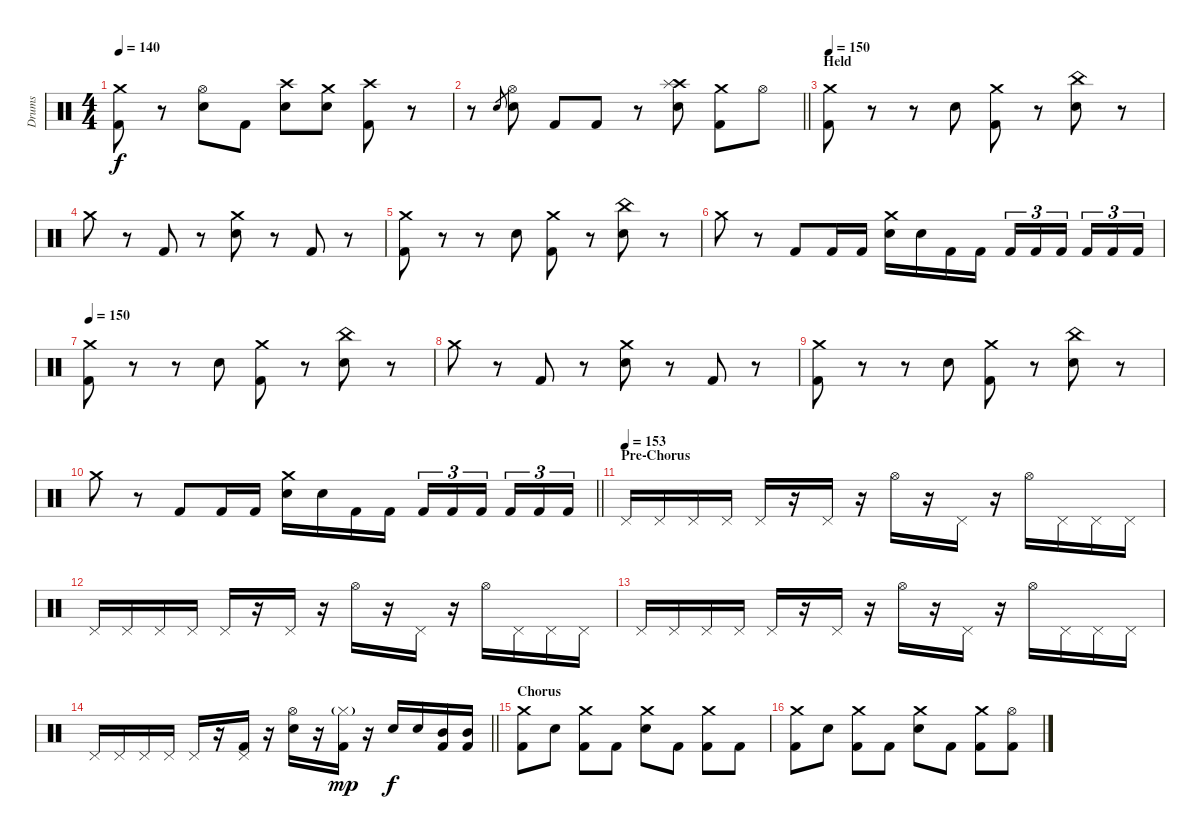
\track ("Drums" "Drums") {instrument percussion}
\staff {score}
\articulation defaults
\ts (4 4)
\tempo 140
\clef neutral
\ks c
("Crash medium (hit)" "Kick (hit) 2").8{dy f} r.8 ("Hi-Hat (open)" "Electric Snare (hit)").8 "Kick (hit) 2".8 ("Crash high (hit)" "Electric Snare (hit)").8 ("Crash medium (hit)" "Electric Snare (hit)").8 ("Crash high (hit)" "Kick (hit) 2").8 r.8 |
\barLineRight lightlight
r.8 "Electric Snare (hit)".8{gr} ("Hi-Hat (open)" "Electric Snare (hit)").8 "Kick (hit) 2".8 "Kick (hit) 2".8 r.8 ("Crash high (hit)" "Splash (hit)" "Electric Snare (hit)").8 ("Crash medium (hit)" "Kick (hit) 2").8 "Hi-Hat (open)".8 |
\section ("" "Held")
\tempo 150
("Crash medium (hit)" "Kick (hit) 2").8 r.8 r.8 "Electric Snare (hit)".8 ("Crash medium (hit)" "Kick (hit) 2").8 r.8 ("China (hit)" "Electric Snare (hit)").8 r.8 |
"Crash medium (hit)".8 r.8 "Kick (hit) 2".8 r.8 ("Crash medium (hit)" "Electric Snare (hit)").8 r.8 "Kick (hit) 2".8 r.8 |
("Crash medium (hit)" "Kick (hit) 2").8 r.8 r.8 "Electric Snare (hit)".8 ("Crash medium (hit)" "Kick (hit) 2").8 r.8 ("China (hit)" "Electric Snare (hit)").8 r.8 |
"Crash medium (hit)".8 r.8 "Kick (hit) 2".8 "Kick (hit) 2".16 "Kick (hit) 2".16 ("Crash medium (hit)" "Electric Snare (hit)").16 "Electric Snare (hit)".16 "Kick (hit) 2".16 "Kick (hit) 2".16 "Kick (hit) 2".16{tu (3 2)} "Kick (hit) 2".16{tu (3 2)} "Kick (hit) 2".16{tu (3 2) beam splitsecondary} "Kick (hit) 2".16{tu (3 2)} "Kick (hit) 2".16{tu (3 2)} "Kick (hit) 2".16{tu (3 2)} |
\tempo 150
("Crash medium (hit)" "Kick (hit) 2").8 r.8 r.8 "Electric Snare (hit)".8 ("Crash medium (hit)" "Kick (hit) 2").8 r.8 ("China (hit)" "Electric Snare (hit)").8 r.8 |
"Crash medium (hit)".8 r.8 "Kick (hit) 2".8 r.8 ("Crash medium (hit)" "Electric Snare (hit)").8 r.8 "Kick (hit) 2".8 r.8 |
("Crash medium (hit)" "Kick (hit) 2").8 r.8 r.8 "Electric Snare (hit)".8 ("Crash medium (hit)" "Kick (hit) 2").8 r.8 ("China (hit)" "Electric Snare (hit)").8 r.8 |
\barLineRight lightlight "Crash medium (hit)".8
r.8 "Kick (hit) 2".8 "Kick (hit) 2".16 "Kick (hit) 2".16 ("Crash medium (hit)" "Electric Snare (hit)").16 "Electric Snare (hit)".16 "Kick (hit) 2".16 "Kick (hit) 2".16 "Kick (hit) 2".16{tu (3 2)} "Kick (hit) 2".16{tu (3 2)} "Kick (hit) 2".16{tu (3 2) beam splitsecondary} "Kick (hit) 2".16{tu (3 2)} "Kick (hit) 2".16{tu (3 2)} "Kick (hit) 2".16{tu (3 2)} |
\section ("" "Pre-Chorus")
\tempo (153)
"Pedal Hi-Hat (hit)".16 "Pedal Hi-Hat (hit)".16 "Pedal Hi-Hat (hit)".16 "Pedal Hi-Hat (hit)".16 "Pedal Hi-Hat (hit)".16 r.16 "Pedal Hi-Hat (hit)".16 r.16 "Hi-Hat (open)".16 r.16 "Pedal Hi-Hat (hit)".16 r.16 "Hi-Hat (open)".16 "Pedal Hi-Hat (hit)".16 "Pedal Hi-Hat (hit)".16 "Pedal Hi-Hat (hit)".16 |
"Pedal Hi-Hat (hit)".16 "Pedal Hi-Hat (hit)".16 "Pedal Hi-Hat (hit)".16 "Pedal Hi-Hat (hit)".16 "Pedal Hi-Hat (hit)".16 r.16 "Pedal Hi-Hat (hit)".16 r.16 "Hi-Hat (open)".16 r.16 "Pedal Hi-Hat (hit)".16 r.16 "Hi-Hat (open)".16 "Pedal Hi-Hat (hit)".16 "Pedal Hi-Hat (hit)".16 "Pedal Hi-Hat (hit)".16 |
"Pedal Hi-Hat (hit)".16 "Pedal Hi-Hat (hit)".16 "Pedal Hi-Hat (hit)".16 "Pedal Hi-Hat (hit)".16 "Pedal Hi-Hat (hit)".16 r.16 "Pedal Hi-Hat (hit)".16 r.16 "Hi-Hat (open)".16 r.16 "Pedal Hi-Hat (hit)".16 r.16 "Hi-Hat (open)".16 "Pedal Hi-Hat (hit)".16 "Pedal Hi-Hat (hit)".16 "Pedal Hi-Hat (hit)".16 |
\barLineRight lightlight "Pedal Hi-Hat (hit)".16 "Pedal Hi-Hat (hit)".16 "Pedal Hi-Hat (hit)".16 "Pedal Hi-Hat (hit)".16 "Pedal Hi-Hat (hit)".16
r.16 ("Pedal Hi-Hat (hit)" "Kick (hit) 2").16 r.16 ("Hi-Hat (open)" "Electric Snare (hit)").16 r.16 ("Hi-Hat (closed)"{g} "Kick (hit) 2").16{dy mp} r.16 "Electric Snare (hit)".16{dy f} "Electric Snare (hit)".16 ("Mid Tom (hit)" "Kick (hit) 2").16 ("Mid Tom (hit)" "Kick (hit) 2").16 |
\section ("" "Chorus")
("Crash medium (hit)" "Kick (hit) 2").8 "Electric Snare (hit)".8 ("Crash medium (hit)" "Kick (hit) 2").8 "Kick (hit) 2".8 ("Crash medium (hit)" "Electric Snare (hit)").8 "Kick (hit) 2".8 ("Crash medium (hit)" "Kick (hit) 2").8 "Kick (hit) 2".8 |
("Crash medium (hit)" "Kick (hit) 2").8 "Electric Snare (hit)".8 ("Crash medium (hit)" "Kick (hit) 2").8 "Kick (hit) 2".8 ("Crash medium (hit)" "Electric Snare (hit)").8 "Kick (hit) 2".8 ("Crash medium (hit)" "Kick (hit) 2").8 ("Hi-Hat (open)" "Kick (hit) 2").8
